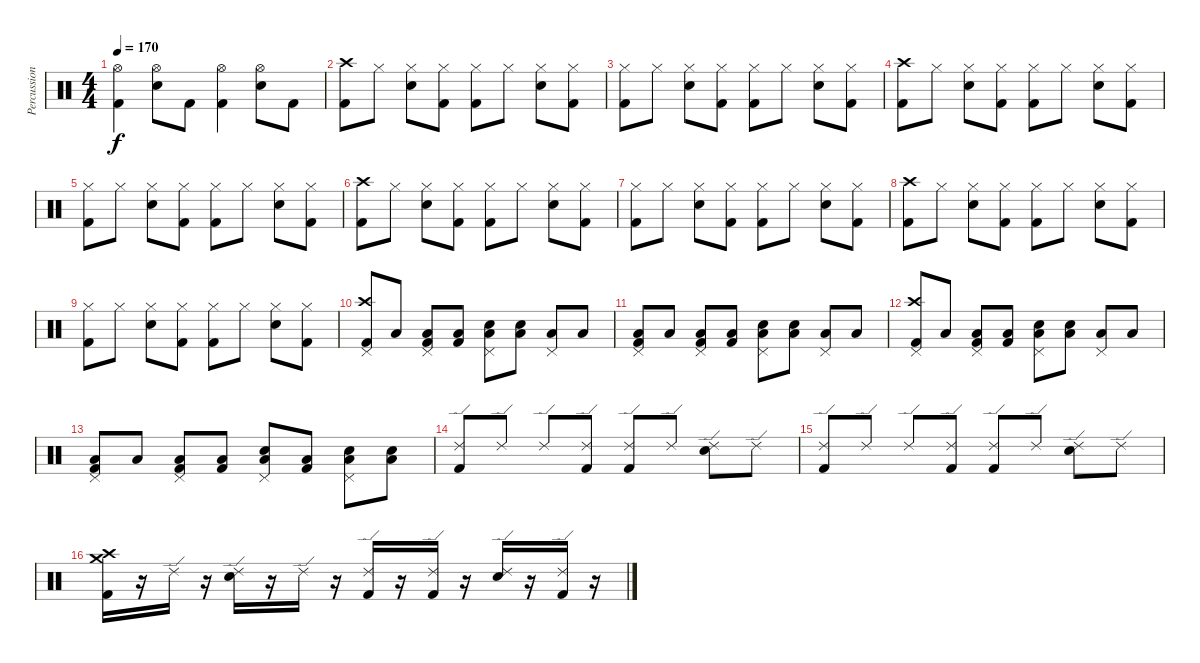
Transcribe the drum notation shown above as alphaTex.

\track ("Percussion" "Percussion") {instrument percussion}
\staff {score}
\articulation defaults
\ts (4 4)
\tempo 170
\clef neutral
\ks c
("Hi-Hat (open)" "Kick (hit) 2").4{dy f} ("Hi-Hat (open)" "Snare (hit) 2").8 "Kick (hit) 2".8 ("Hi-Hat (open)" "Kick (hit) 2").4 ("Hi-Hat (open)" "Snare (hit) 2").8 "Kick (hit) 2".8 |
("Crash high (hit)" "Kick (hit) 2").8 "Hi-Hat (closed)".8 ("Hi-Hat (closed)" "Snare (hit) 2").8 ("Hi-Hat (closed)" "Kick (hit) 2").8 ("Hi-Hat (closed)" "Kick (hit) 2").8 "Hi-Hat (closed)".8 ("Hi-Hat (closed)" "Snare (hit) 2").8 ("Hi-Hat (closed)" "Kick (hit) 2").8 |
("Hi-Hat (closed)" "Kick (hit) 2").8 "Hi-Hat (closed)".8 ("Hi-Hat (closed)" "Snare (hit) 2").8 ("Hi-Hat (closed)" "Kick (hit) 2").8 ("Hi-Hat (closed)" "Kick (hit) 2").8 "Hi-Hat (closed)".8 ("Hi-Hat (closed)" "Snare (hit) 2").8 ("Hi-Hat (closed)" "Kick (hit) 2").8 |
("Crash high (hit)" "Kick (hit) 2").8 "Hi-Hat (closed)".8 ("Hi-Hat (closed)" "Snare (hit) 2").8 ("Hi-Hat (closed)" "Kick (hit) 2").8 ("Hi-Hat (closed)" "Kick (hit) 2").8 "Hi-Hat (closed)".8 ("Hi-Hat (closed)" "Snare (hit) 2").8 ("Hi-Hat (closed)" "Kick (hit) 2").8 |
("Hi-Hat (closed)" "Kick (hit) 2").8 "Hi-Hat (closed)".8 ("Hi-Hat (closed)" "Snare (hit) 2").8 ("Hi-Hat (closed)" "Kick (hit) 2").8 ("Hi-Hat (closed)" "Kick (hit) 2").8 "Hi-Hat (closed)".8 ("Hi-Hat (closed)" "Snare (hit) 2").8 ("Hi-Hat (closed)" "Kick (hit) 2").8 |
("Crash high (hit)" "Kick (hit) 2").8 "Hi-Hat (closed)".8 ("Hi-Hat (closed)" "Snare (hit) 2").8 ("Hi-Hat (closed)" "Kick (hit) 2").8 ("Hi-Hat (closed)" "Kick (hit) 2").8 "Hi-Hat (closed)".8 ("Hi-Hat (closed)" "Snare (hit) 2").8 ("Hi-Hat (closed)" "Kick (hit) 2").8 |
("Hi-Hat (closed)" "Kick (hit) 2").8 "Hi-Hat (closed)".8 ("Hi-Hat (closed)" "Snare (hit) 2").8 ("Hi-Hat (closed)" "Kick (hit) 2").8 ("Hi-Hat (closed)" "Kick (hit) 2").8 "Hi-Hat (closed)".8 ("Hi-Hat (closed)" "Snare (hit) 2").8 ("Hi-Hat (closed)" "Kick (hit) 2").8 |
("Crash high (hit)" "Kick (hit) 2").8 "Hi-Hat (closed)".8 ("Hi-Hat (closed)" "Snare (hit) 2").8 ("Hi-Hat (closed)" "Kick (hit) 2").8 ("Hi-Hat (closed)" "Kick (hit) 2").8 "Hi-Hat (closed)".8 ("Hi-Hat (closed)" "Snare (hit) 2").8 ("Hi-Hat (closed)" "Kick (hit) 2").8 |
("Hi-Hat (closed)" "Kick (hit) 2").8 "Hi-Hat (closed)".8 ("Hi-Hat (closed)" "Snare (hit) 2").8 ("Hi-Hat (closed)" "Kick (hit) 2").8 ("Hi-Hat (closed)" "Kick (hit) 2").8 "Hi-Hat (closed)".8 ("Hi-Hat (closed)" "Snare (hit) 2").8 ("Hi-Hat (closed)" "Kick (hit) 2").8 |
("Pedal Hi-Hat (hit)" "Crash high (hit)" "Kick (hit) 2").8 "Low Tom (hit)".8 ("Pedal Hi-Hat (hit)" "Low Tom (hit)" "Kick (hit) 2").8 ("Low Tom (hit)" "Kick (hit) 2").8 ("Pedal Hi-Hat (hit)" "Low Tom (hit)" "Snare (hit) 2").8 ("Low Tom (hit)" "Snare (hit) 2").8 ("Pedal Hi-Hat (hit)" "Low Tom (hit)").8 "Low Tom (hit)".8 |
("Pedal Hi-Hat (hit)" "Low Tom (hit)" "Kick (hit) 2").8 "Low Tom (hit)".8 ("Pedal Hi-Hat (hit)" "Low Tom (hit)" "Kick (hit) 2").8 ("Low Tom (hit)" "Kick (hit) 2").8 ("Pedal Hi-Hat (hit)" "Low Tom (hit)" "Snare (hit) 2").8 ("Low Tom (hit)" "Snare (hit) 2").8 ("Pedal Hi-Hat (hit)" "Low Tom (hit)").8 "Low Tom (hit)".8 |
("Pedal Hi-Hat (hit)" "Crash high (hit)" "Kick (hit) 2").8 "Low Tom (hit)".8 ("Pedal Hi-Hat (hit)" "Low Tom (hit)" "Kick (hit) 2").8 ("Low Tom (hit)" "Kick (hit) 2").8 ("Pedal Hi-Hat (hit)" "Low Tom (hit)" "Snare (hit) 2").8 ("Low Tom (hit)" "Snare (hit) 2").8 ("Pedal Hi-Hat (hit)" "Low Tom (hit)").8 "Low Tom (hit)".8 |
("Pedal Hi-Hat (hit)" "Low Tom (hit)" "Kick (hit) 2").8 "Low Tom (hit)".8 ("Pedal Hi-Hat (hit)" "Low Tom (hit)" "Kick (hit) 2").8 ("Low Tom (hit)" "Kick (hit) 2").8 ("Pedal Hi-Hat (hit)" "Low Tom (hit)" "Snare (hit) 2").8 ("Low Tom (hit)" "Kick (hit) 2").8 ("Pedal Hi-Hat (hit)" "Low Tom (hit)" "Snare (hit) 2").8 ("Low Tom (hit)" "Snare (hit) 2").8 |
("Kick (hit) 2" "Ride (edge) 2").8 "Ride (edge) 2".8 "Ride (edge) 2".8 ("Kick (hit) 2" "Ride (edge) 2").8 ("Kick (hit) 2" "Ride (edge) 2").8 "Ride (edge) 2".8 ("Snare (hit) 2" "Ride (edge) 2").8 "Ride (edge) 2".8 |
("Kick (hit) 2" "Ride (edge) 2").8 "Ride (edge) 2".8 "Ride (edge) 2".8 ("Kick (hit) 2" "Ride (edge) 2").8 ("Kick (hit) 2" "Ride (edge) 2").8 "Ride (edge) 2".8 ("Snare (hit) 2" "Ride (edge) 2").8 "Ride (edge) 2".8 |
("Crash medium (hit)" "Crash high (hit)" "Kick (hit) 2").16 r.16 "Ride (edge) 2".16 r.16 ("Ride (edge) 2" "Snare (hit) 2").16 r.16 "Ride (edge) 2".16 r.16 ("Ride (edge) 2" "Kick (hit) 2").16 r.16 ("Ride (edge) 2" "Kick (hit) 2").16 r.16 ("Ride (edge) 2" "Snare (hit) 2").16 r.16 ("Ride (edge) 2" "Kick (hit) 2").16 r.16
